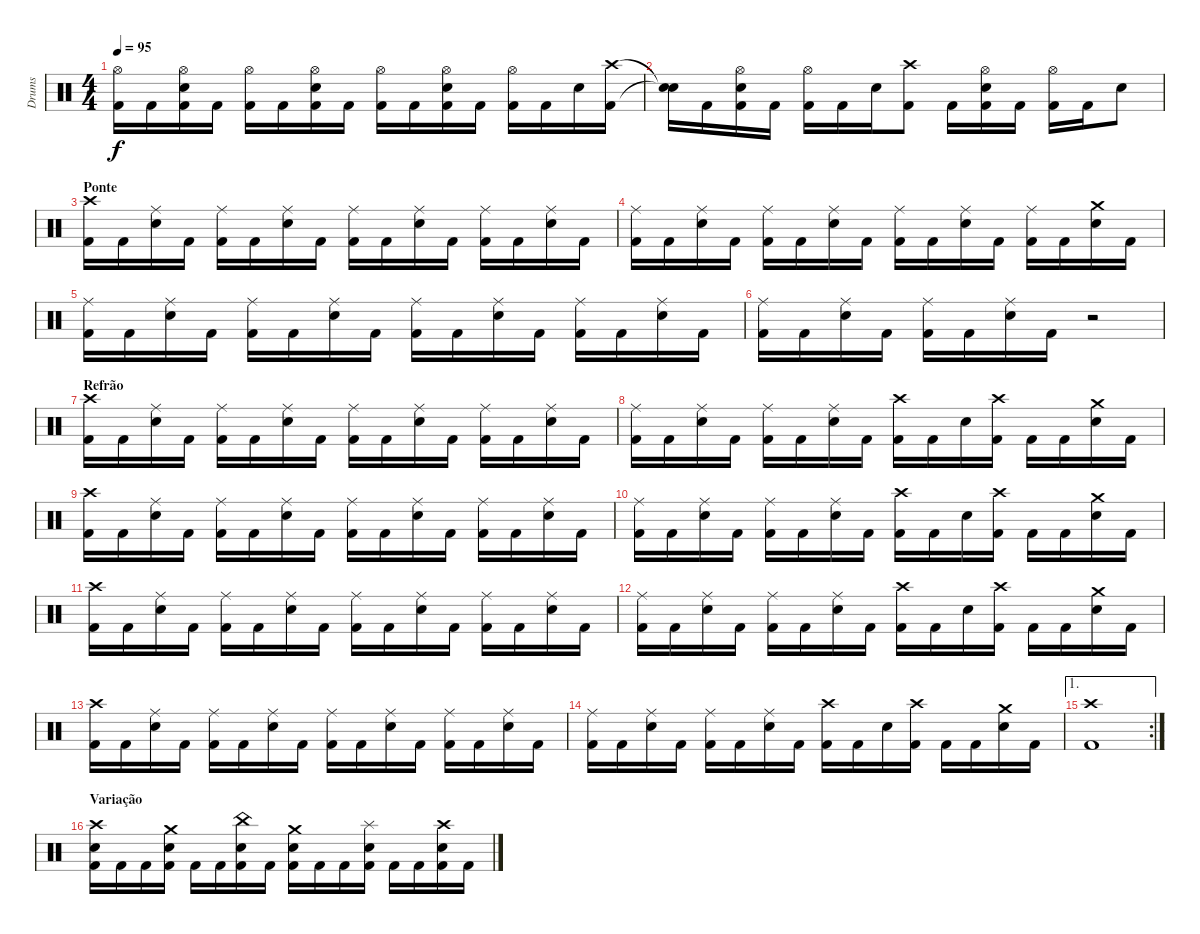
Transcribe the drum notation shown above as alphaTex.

\track ("Drums" "Drums") {instrument percussion}
\staff {score}
\articulation defaults
\ts (4 4)
\tempo 95
\clef neutral
\ks c
("Hi-Hat (open)" "Kick (hit) 2").16{dy f} "Kick (hit) 2".16 ("Hi-Hat (open)" "Snare (hit) 2" "Kick (hit) 2").16 "Kick (hit) 2".16 ("Hi-Hat (open)" "Kick (hit) 2").16 "Kick (hit) 2".16 ("Hi-Hat (open)" "Snare (hit) 2" "Kick (hit) 2").16 "Kick (hit) 2".16 ("Hi-Hat (open)" "Kick (hit) 2").16 "Kick (hit) 2".16 ("Hi-Hat (open)" "Snare (hit) 2" "Kick (hit) 2").16 "Kick (hit) 2".16 ("Hi-Hat (open)" "Kick (hit) 2").16 "Kick (hit) 2".16 "Snare (hit) 2".16 ("Crash high (hit)" "Kick (hit) 2").16 |
("Snare (hit)"{t} "Snare (hit)"{t}).16 "Kick (hit) 2".16 ("Hi-Hat (open)" "Snare (hit) 2" "Kick (hit) 2").16 "Kick (hit) 2".16 ("Hi-Hat (open)" "Kick (hit) 2").16 "Kick (hit) 2".16 "Snare (hit) 2".16 ("Crash high (hit)" "Kick (hit) 2").8 "Kick (hit) 2".16 ("Hi-Hat (open)" "Snare (hit) 2" "Kick (hit) 2").16 "Kick (hit) 2".16 ("Hi-Hat (open)" "Kick (hit) 2").16 "Kick (hit) 2".16 "Snare (hit) 2".8 |
\section ("" "Ponte")
("Crash high (hit)" "Kick (hit) 2").16 "Kick (hit) 2".16 ("Ride (middle)" "Snare (hit) 2").16 "Kick (hit) 2".16 ("Ride (middle)" "Kick (hit) 2").16 "Kick (hit) 2".16 ("Ride (middle)" "Snare (hit) 2").16 "Kick (hit) 2".16 ("Ride (middle)" "Kick (hit) 2").16 "Kick (hit) 2".16 ("Ride (middle)" "Snare (hit) 2").16 "Kick (hit) 2".16 ("Ride (middle)" "Kick (hit) 2").16 "Kick (hit) 2".16 ("Ride (middle)" "Snare (hit) 2").16 "Kick (hit) 2".16 |
("Ride (middle)" "Kick (hit) 2").16 "Kick (hit) 2".16 ("Ride (middle)" "Snare (hit) 2").16 "Kick (hit) 2".16 ("Ride (middle)" "Kick (hit) 2").16 "Kick (hit) 2".16 ("Ride (middle)" "Snare (hit) 2").16 "Kick (hit) 2".16 ("Ride (middle)" "Kick (hit) 2").16 "Kick (hit) 2".16 ("Ride (middle)" "Snare (hit) 2").16 "Kick (hit) 2".16 ("Ride (middle)" "Kick (hit) 2").16 "Kick (hit) 2".16 ("Crash medium (hit)" "Snare (hit) 2").16 "Kick (hit) 2".16 |
("Ride (middle)" "Kick (hit) 2").16 "Kick (hit) 2".16 ("Ride (middle)" "Snare (hit) 2").16 "Kick (hit) 2".16 ("Ride (middle)" "Kick (hit) 2").16 "Kick (hit) 2".16 ("Ride (middle)" "Snare (hit) 2").16 "Kick (hit) 2".16 ("Ride (middle)" "Kick (hit) 2").16 "Kick (hit) 2".16 ("Ride (middle)" "Snare (hit) 2").16 "Kick (hit) 2".16 ("Ride (middle)" "Kick (hit) 2").16 "Kick (hit) 2".16 ("Ride (middle)" "Snare (hit) 2").16 "Kick (hit) 2".16 |
("Ride (middle)" "Kick (hit) 2").16 "Kick (hit) 2".16 ("Ride (middle)" "Snare (hit) 2").16 "Kick (hit) 2".16 ("Ride (middle)" "Kick (hit) 2").16 "Kick (hit) 2".16 ("Ride (middle)" "Snare (hit) 2").16 "Kick (hit) 2".16 r.2 |
\section ("" "Refrão")
("Crash high (hit)" "Kick (hit) 2").16 "Kick (hit) 2".16 ("Ride (middle)" "Snare (hit) 2").16 "Kick (hit) 2".16 ("Ride (middle)" "Kick (hit) 2").16 "Kick (hit) 2".16 ("Ride (middle)" "Snare (hit) 2").16 "Kick (hit) 2".16 ("Ride (middle)" "Kick (hit) 2").16 "Kick (hit) 2".16 ("Ride (middle)" "Snare (hit) 2").16 "Kick (hit) 2".16 ("Ride (middle)" "Kick (hit) 2").16 "Kick (hit) 2".16 ("Ride (middle)" "Snare (hit) 2").16 "Kick (hit) 2".16 |
("Ride (middle)" "Kick (hit) 2").16 "Kick (hit) 2".16 ("Ride (middle)" "Snare (hit) 2").16 "Kick (hit) 2".16 ("Ride (middle)" "Kick (hit) 2").16 "Kick (hit) 2".16 ("Ride (middle)" "Snare (hit) 2").16 "Kick (hit) 2".16 ("Crash high (hit)" "Kick (hit) 2").16 "Kick (hit) 2".16 "Snare (hit) 2".16 ("Crash high (hit)" "Kick (hit) 2").16 "Kick (hit) 2".16 "Kick (hit) 2".16 ("Crash medium (hit)" "Snare (hit) 2").16 "Kick (hit) 2".16 |
("Crash high (hit)" "Kick (hit) 2").16 "Kick (hit) 2".16 ("Ride (middle)" "Snare (hit) 2").16 "Kick (hit) 2".16 ("Ride (middle)" "Kick (hit) 2").16 "Kick (hit) 2".16 ("Ride (middle)" "Snare (hit) 2").16 "Kick (hit) 2".16 ("Ride (middle)" "Kick (hit) 2").16 "Kick (hit) 2".16 ("Ride (middle)" "Snare (hit) 2").16 "Kick (hit) 2".16 ("Ride (middle)" "Kick (hit) 2").16 "Kick (hit) 2".16 ("Ride (middle)" "Snare (hit) 2").16 "Kick (hit) 2".16 |
("Ride (middle)" "Kick (hit) 2").16 "Kick (hit) 2".16 ("Ride (middle)" "Snare (hit) 2").16 "Kick (hit) 2".16 ("Ride (middle)" "Kick (hit) 2").16 "Kick (hit) 2".16 ("Ride (middle)" "Snare (hit) 2").16 "Kick (hit) 2".16 ("Crash high (hit)" "Kick (hit) 2").16 "Kick (hit) 2".16 "Snare (hit) 2".16 ("Crash high (hit)" "Kick (hit) 2").16 "Kick (hit) 2".16 "Kick (hit) 2".16 ("Crash medium (hit)" "Snare (hit) 2").16 "Kick (hit) 2".16 |
("Crash high (hit)" "Kick (hit) 2").16 "Kick (hit) 2".16 ("Ride (middle)" "Snare (hit) 2").16 "Kick (hit) 2".16 ("Ride (middle)" "Kick (hit) 2").16 "Kick (hit) 2".16 ("Ride (middle)" "Snare (hit) 2").16 "Kick (hit) 2".16 ("Ride (middle)" "Kick (hit) 2").16 "Kick (hit) 2".16 ("Ride (middle)" "Snare (hit) 2").16 "Kick (hit) 2".16 ("Ride (middle)" "Kick (hit) 2").16 "Kick (hit) 2".16 ("Ride (middle)" "Snare (hit) 2").16 "Kick (hit) 2".16 |
("Ride (middle)" "Kick (hit) 2").16 "Kick (hit) 2".16 ("Ride (middle)" "Snare (hit) 2").16 "Kick (hit) 2".16 ("Ride (middle)" "Kick (hit) 2").16 "Kick (hit) 2".16 ("Ride (middle)" "Snare (hit) 2").16 "Kick (hit) 2".16 ("Crash high (hit)" "Kick (hit) 2").16 "Kick (hit) 2".16 "Snare (hit) 2".16 ("Crash high (hit)" "Kick (hit) 2").16 "Kick (hit) 2".16 "Kick (hit) 2".16 ("Crash medium (hit)" "Snare (hit) 2").16 "Kick (hit) 2".16 |
("Crash high (hit)" "Kick (hit) 2").16 "Kick (hit) 2".16 ("Ride (middle)" "Snare (hit) 2").16 "Kick (hit) 2".16 ("Ride (middle)" "Kick (hit) 2").16 "Kick (hit) 2".16 ("Ride (middle)" "Snare (hit) 2").16 "Kick (hit) 2".16 ("Ride (middle)" "Kick (hit) 2").16 "Kick (hit) 2".16 ("Ride (middle)" "Snare (hit) 2").16 "Kick (hit) 2".16 ("Ride (middle)" "Kick (hit) 2").16 "Kick (hit) 2".16 ("Ride (middle)" "Snare (hit) 2").16 "Kick (hit) 2".16 |
("Ride (middle)" "Kick (hit) 2").16 "Kick (hit) 2".16 ("Ride (middle)" "Snare (hit) 2").16 "Kick (hit) 2".16 ("Ride (middle)" "Kick (hit) 2").16 "Kick (hit) 2".16 ("Ride (middle)" "Snare (hit) 2").16 "Kick (hit) 2".16 ("Crash high (hit)" "Kick (hit) 2").16 "Kick (hit) 2".16 "Snare (hit) 2".16 ("Crash high (hit)" "Kick (hit) 2").16 "Kick (hit) 2".16 "Kick (hit) 2".16 ("Crash medium (hit)" "Snare (hit) 2").16 "Kick (hit) 2".16 |
\ae 1
\rc 2
("Crash high (hit)" "Kick (hit) 2").1 |
\section ("" "Variação")
("Crash high (hit)" "Snare (hit) 2" "Kick (hit) 2").16 "Kick (hit) 2".16 "Kick (hit) 2".16 ("Crash medium (hit)" "Snare (hit) 2" "Kick (hit) 2").16 "Kick (hit) 2".16 "Kick (hit) 2".16 ("China (hit)" "Snare (hit) 2" "Kick (hit) 2").16 "Kick (hit) 2".16 ("Crash medium (hit)" "Snare (hit) 2" "Kick (hit) 2").16 "Kick (hit) 2".16 "Kick (hit) 2".16 ("Splash (hit)" "Snare (hit) 2" "Kick (hit) 2").16 "Kick (hit) 2".16 "Kick (hit) 2".16 ("Crash high (hit)" "Snare (hit) 2" "Kick (hit) 2").16 "Kick (hit) 2".16
